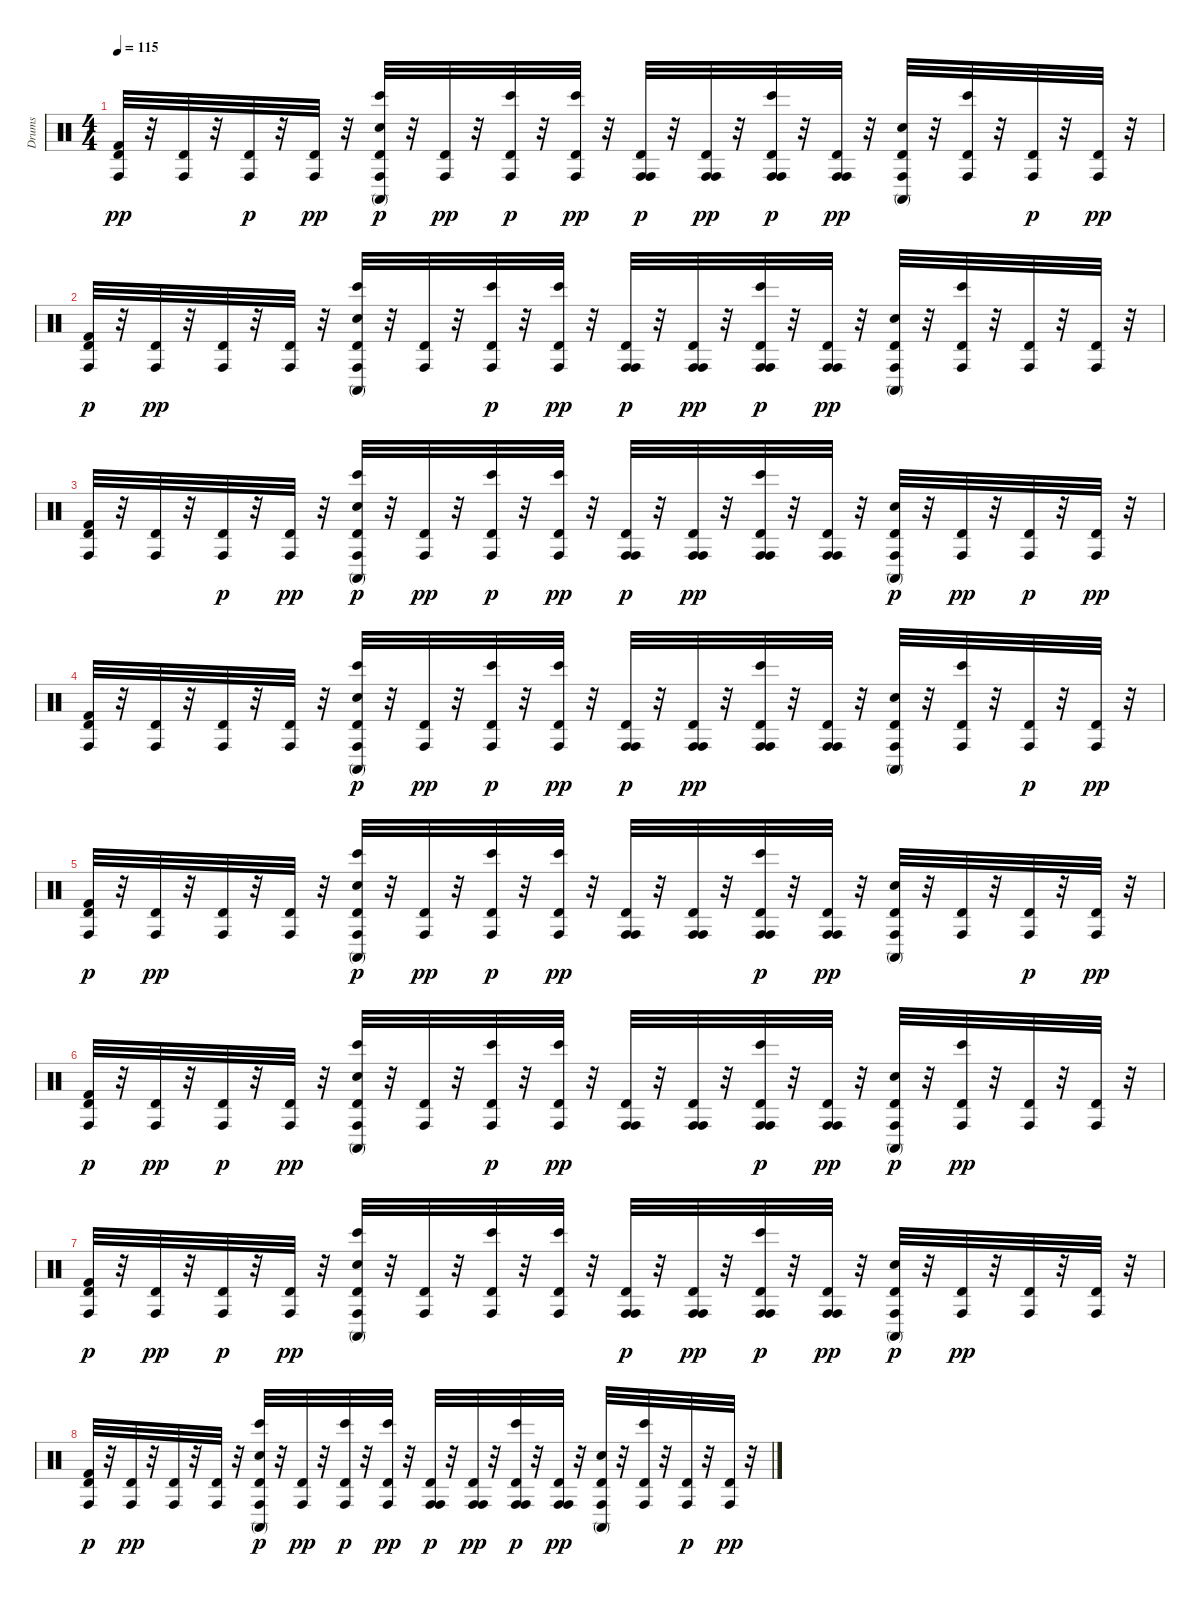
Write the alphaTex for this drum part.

\track ("Drums" "Drums") {instrument percussion}
\staff {score}
\articulation defaults
\ts (4 4)
\tempo 115
\clef neutral
\ks c
("Conga high (hit)" "Kick (hit) 2" "Timbale high (hit)").32{dy pp} r.32 ("Conga high (hit)" "Timbale high (hit)").32 r.32 ("Conga high (hit)" "Timbale high (hit)").32{dy p} r.32 ("Conga high (hit)" "Timbale high (hit)").32{dy pp} r.32 ("Conga high (hit)" "Hand Clap (hit)" "Conga high (mute)" "Bongo High (hit)" "Timbale high (hit)").32{dy p} r.32 ("Conga high (hit)" "Timbale high (hit)").32{dy pp} r.32 ("Conga high (hit)" "Bongo High (hit)" "Timbale high (hit)").32{dy p} r.32 ("Conga high (hit)" "Bongo High (hit)" "Timbale high (hit)").32{dy pp} r.32 ("Conga high (hit)" "Conga high (hit)" "Timbale high (hit)").32{dy p} r.32 ("Conga high (hit)" "Conga high (hit)" "Timbale high (hit)").32{dy pp} r.32 ("Conga high (hit)" "Conga high (hit)" "Bongo High (hit)" "Timbale high (hit)").32{dy p} r.32 ("Conga high (hit)" "Conga high (hit)" "Timbale high (hit)").32{dy pp} r.32 ("Conga high (hit)" "Hand Clap (hit)" "Conga high (mute)" "Timbale high (hit)").32 r.32 ("Conga high (hit)" "Bongo High (hit)" "Timbale high (hit)").32 r.32 ("Conga high (hit)" "Timbale high (hit)").32{dy p} r.32 ("Conga high (hit)" "Timbale high (hit)").32{dy pp} r.32 |
("Conga high (hit)" "Kick (hit) 2" "Timbale high (hit)").32{dy p} r.32 ("Conga high (hit)" "Timbale high (hit)").32{dy pp} r.32 ("Conga high (hit)" "Timbale high (hit)").32 r.32 ("Conga high (hit)" "Timbale high (hit)").32 r.32 ("Conga high (hit)" "Hand Clap (hit)" "Conga high (mute)" "Bongo High (hit)" "Timbale high (hit)").32 r.32 ("Conga high (hit)" "Timbale high (hit)").32 r.32 ("Conga high (hit)" "Bongo High (hit)" "Timbale high (hit)").32{dy p} r.32 ("Conga high (hit)" "Bongo High (hit)" "Timbale high (hit)").32{dy pp} r.32 ("Conga high (hit)" "Conga high (hit)" "Timbale high (hit)").32{dy p} r.32 ("Conga high (hit)" "Conga high (hit)" "Timbale high (hit)").32{dy pp} r.32 ("Conga high (hit)" "Conga high (hit)" "Bongo High (hit)" "Timbale high (hit)").32{dy p} r.32 ("Conga high (hit)" "Conga high (hit)" "Timbale high (hit)").32{dy pp} r.32 ("Conga high (hit)" "Hand Clap (hit)" "Conga high (mute)" "Timbale high (hit)").32 r.32 ("Conga high (hit)" "Bongo High (hit)" "Timbale high (hit)").32 r.32 ("Conga high (hit)" "Timbale high (hit)").32 r.32 ("Conga high (hit)" "Timbale high (hit)").32 r.32 |
("Conga high (hit)" "Kick (hit) 2" "Timbale high (hit)").32 r.32 ("Conga high (hit)" "Timbale high (hit)").32 r.32 ("Conga high (hit)" "Timbale high (hit)").32{dy p} r.32 ("Conga high (hit)" "Timbale high (hit)").32{dy pp} r.32 ("Conga high (hit)" "Hand Clap (hit)" "Conga high (mute)" "Bongo High (hit)" "Timbale high (hit)").32{dy p} r.32 ("Conga high (hit)" "Timbale high (hit)").32{dy pp} r.32 ("Conga high (hit)" "Bongo High (hit)" "Timbale high (hit)").32{dy p} r.32 ("Conga high (hit)" "Bongo High (hit)" "Timbale high (hit)").32{dy pp} r.32 ("Conga high (hit)" "Conga high (hit)" "Timbale high (hit)").32{dy p} r.32 ("Conga high (hit)" "Conga high (hit)" "Timbale high (hit)").32{dy pp} r.32 ("Conga high (hit)" "Conga high (hit)" "Bongo High (hit)" "Timbale high (hit)").32 r.32 ("Conga high (hit)" "Conga high (hit)" "Timbale high (hit)").32 r.32 ("Conga high (hit)" "Hand Clap (hit)" "Conga high (mute)" "Timbale high (hit)").32{dy p} r.32 ("Conga high (hit)" "Timbale high (hit)").32{dy pp} r.32 ("Conga high (hit)" "Timbale high (hit)").32{dy p} r.32 ("Conga high (hit)" "Timbale high (hit)").32{dy pp} r.32 |
("Conga high (hit)" "Kick (hit) 2" "Timbale high (hit)").32 r.32 ("Conga high (hit)" "Timbale high (hit)").32 r.32 ("Conga high (hit)" "Timbale high (hit)").32 r.32 ("Conga high (hit)" "Timbale high (hit)").32 r.32 ("Conga high (hit)" "Hand Clap (hit)" "Conga high (mute)" "Bongo High (hit)" "Timbale high (hit)").32{dy p} r.32 ("Conga high (hit)" "Timbale high (hit)").32{dy pp} r.32 ("Conga high (hit)" "Bongo High (hit)" "Timbale high (hit)").32{dy p} r.32 ("Conga high (hit)" "Bongo High (hit)" "Timbale high (hit)").32{dy pp} r.32 ("Conga high (hit)" "Conga high (hit)" "Timbale high (hit)").32{dy p} r.32 ("Conga high (hit)" "Conga high (hit)" "Timbale high (hit)").32{dy pp} r.32 ("Conga high (hit)" "Conga high (hit)" "Bongo High (hit)" "Timbale high (hit)").32 r.32 ("Conga high (hit)" "Conga high (hit)" "Timbale high (hit)").32 r.32 ("Conga high (hit)" "Hand Clap (hit)" "Conga high (mute)" "Timbale high (hit)").32 r.32 ("Conga high (hit)" "Bongo High (hit)" "Timbale high (hit)").32 r.32 ("Conga high (hit)" "Timbale high (hit)").32{dy p} r.32 ("Conga high (hit)" "Timbale high (hit)").32{dy pp} r.32 |
("Conga high (hit)" "Kick (hit) 2" "Timbale high (hit)").32{dy p} r.32 ("Conga high (hit)" "Timbale high (hit)").32{dy pp} r.32 ("Conga high (hit)" "Timbale high (hit)").32 r.32 ("Conga high (hit)" "Timbale high (hit)").32 r.32 ("Conga high (hit)" "Hand Clap (hit)" "Conga high (mute)" "Bongo High (hit)" "Timbale high (hit)").32{dy p} r.32 ("Conga high (hit)" "Timbale high (hit)").32{dy pp} r.32 ("Conga high (hit)" "Bongo High (hit)" "Timbale high (hit)").32{dy p} r.32 ("Conga high (hit)" "Bongo High (hit)" "Timbale high (hit)").32{dy pp} r.32 ("Conga high (hit)" "Conga high (hit)" "Timbale high (hit)").32 r.32 ("Conga high (hit)" "Conga high (hit)" "Timbale high (hit)").32 r.32 ("Conga high (hit)" "Conga high (hit)" "Bongo High (hit)" "Timbale high (hit)").32{dy p} r.32 ("Conga high (hit)" "Conga high (hit)" "Timbale high (hit)").32{dy pp} r.32 ("Conga high (hit)" "Hand Clap (hit)" "Conga high (mute)" "Timbale high (hit)").32 r.32 ("Conga high (hit)" "Timbale high (hit)").32 r.32 ("Conga high (hit)" "Timbale high (hit)").32{dy p} r.32 ("Conga high (hit)" "Timbale high (hit)").32{dy pp} r.32 |
("Conga high (hit)" "Kick (hit) 2" "Timbale high (hit)").32{dy p} r.32 ("Conga high (hit)" "Timbale high (hit)").32{dy pp} r.32 ("Conga high (hit)" "Timbale high (hit)").32{dy p} r.32 ("Conga high (hit)" "Timbale high (hit)").32{dy pp} r.32 ("Conga high (hit)" "Hand Clap (hit)" "Conga high (mute)" "Bongo High (hit)" "Timbale high (hit)").32 r.32 ("Conga high (hit)" "Timbale high (hit)").32 r.32 ("Conga high (hit)" "Bongo High (hit)" "Timbale high (hit)").32{dy p} r.32 ("Conga high (hit)" "Bongo High (hit)" "Timbale high (hit)").32{dy pp} r.32 ("Conga high (hit)" "Conga high (hit)" "Timbale high (hit)").32 r.32 ("Conga high (hit)" "Conga high (hit)" "Timbale high (hit)").32 r.32 ("Conga high (hit)" "Conga high (hit)" "Bongo High (hit)" "Timbale high (hit)").32{dy p} r.32 ("Conga high (hit)" "Conga high (hit)" "Timbale high (hit)").32{dy pp} r.32 ("Conga high (hit)" "Hand Clap (hit)" "Conga high (mute)" "Timbale high (hit)").32{dy p} r.32 ("Conga high (hit)" "Bongo High (hit)" "Timbale high (hit)").32{dy pp} r.32 ("Conga high (hit)" "Timbale high (hit)").32 r.32 ("Conga high (hit)" "Timbale high (hit)").32 r.32 |
("Conga high (hit)" "Kick (hit) 2" "Timbale high (hit)").32{dy p} r.32 ("Conga high (hit)" "Timbale high (hit)").32{dy pp} r.32 ("Conga high (hit)" "Timbale high (hit)").32{dy p} r.32 ("Conga high (hit)" "Timbale high (hit)").32{dy pp} r.32 ("Conga high (hit)" "Hand Clap (hit)" "Conga high (mute)" "Bongo High (hit)" "Timbale high (hit)").32 r.32 ("Conga high (hit)" "Timbale high (hit)").32 r.32 ("Conga high (hit)" "Bongo High (hit)" "Timbale high (hit)").32 r.32 ("Conga high (hit)" "Bongo High (hit)" "Timbale high (hit)").32 r.32 ("Conga high (hit)" "Conga high (hit)" "Timbale high (hit)").32{dy p} r.32 ("Conga high (hit)" "Conga high (hit)" "Timbale high (hit)").32{dy pp} r.32 ("Conga high (hit)" "Conga high (hit)" "Bongo High (hit)" "Timbale high (hit)").32{dy p} r.32 ("Conga high (hit)" "Conga high (hit)" "Timbale high (hit)").32{dy pp} r.32 ("Conga high (hit)" "Hand Clap (hit)" "Conga high (mute)" "Timbale high (hit)").32{dy p} r.32 ("Conga high (hit)" "Timbale high (hit)").32{dy pp} r.32 ("Conga high (hit)" "Timbale high (hit)").32 r.32 ("Conga high (hit)" "Timbale high (hit)").32 r.32 |
("Conga high (hit)" "Kick (hit) 2" "Timbale high (hit)").32{dy p} r.32 ("Conga high (hit)" "Timbale high (hit)").32{dy pp} r.32 ("Conga high (hit)" "Timbale high (hit)").32 r.32 ("Conga high (hit)" "Timbale high (hit)").32 r.32 ("Conga high (hit)" "Hand Clap (hit)" "Conga high (mute)" "Bongo High (hit)" "Timbale high (hit)").32{dy p} r.32 ("Conga high (hit)" "Timbale high (hit)").32{dy pp} r.32 ("Conga high (hit)" "Bongo High (hit)" "Timbale high (hit)").32{dy p} r.32 ("Conga high (hit)" "Bongo High (hit)" "Timbale high (hit)").32{dy pp} r.32 ("Conga high (hit)" "Conga high (hit)" "Timbale high (hit)").32{dy p} r.32 ("Conga high (hit)" "Conga high (hit)" "Timbale high (hit)").32{dy pp} r.32 ("Conga high (hit)" "Conga high (hit)" "Bongo High (hit)" "Timbale high (hit)").32{dy p} r.32 ("Conga high (hit)" "Conga high (hit)" "Timbale high (hit)").32{dy pp} r.32 ("Conga high (hit)" "Hand Clap (hit)" "Conga high (mute)" "Timbale high (hit)").32 r.32 ("Conga high (hit)" "Bongo High (hit)" "Timbale high (hit)").32 r.32 ("Conga high (hit)" "Timbale high (hit)").32{dy p} r.32 ("Conga high (hit)" "Timbale high (hit)").32{dy pp} r.32
